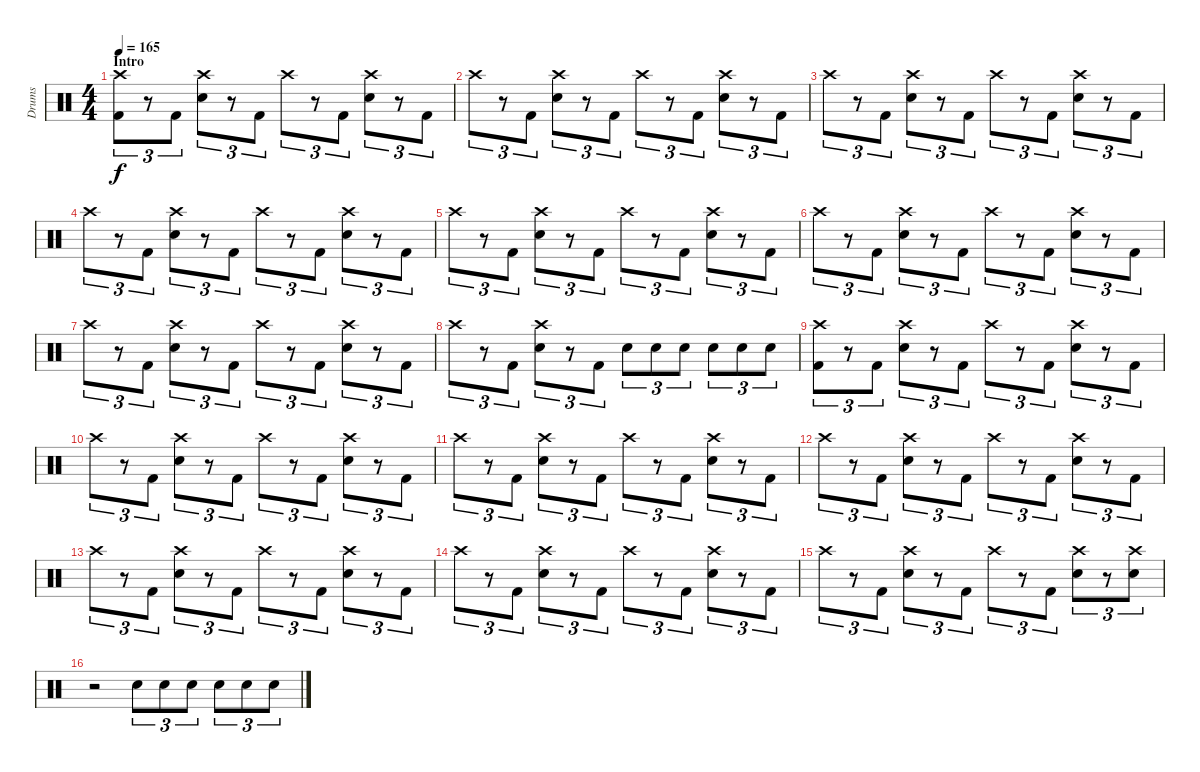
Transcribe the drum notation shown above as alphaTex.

\track ("Drums" "Drums") {instrument percussion}
\staff {score}
\articulation defaults
\ts (4 4)
\section ("" "Intro")
\tempo 165
\clef neutral
\ks c
("Crash high (hit)" "Kick (hit) 2").8{tu (3 2) dy f} r.8{tu (3 2)} "Kick (hit) 2".8{tu (3 2)} ("Crash high (hit)" "Snare (hit) 2").8{tu (3 2)} r.8{tu (3 2)} "Kick (hit) 2".8{tu (3 2)} "Crash high (hit)".8{tu (3 2)} r.8{tu (3 2)} "Kick (hit) 2".8{tu (3 2)} ("Crash high (hit)" "Snare (hit) 2").8{tu (3 2)} r.8{tu (3 2)} "Kick (hit) 2".8{tu (3 2)} |
"Crash high (hit)".8{tu (3 2)} r.8{tu (3 2)} "Kick (hit) 2".8{tu (3 2)} ("Crash high (hit)" "Snare (hit) 2").8{tu (3 2)} r.8{tu (3 2)} "Kick (hit) 2".8{tu (3 2)} "Crash high (hit)".8{tu (3 2)} r.8{tu (3 2)} "Kick (hit) 2".8{tu (3 2)} ("Crash high (hit)" "Snare (hit) 2").8{tu (3 2)} r.8{tu (3 2)} "Kick (hit) 2".8{tu (3 2)} |
"Crash high (hit)".8{tu (3 2)} r.8{tu (3 2)} "Kick (hit) 2".8{tu (3 2)} ("Crash high (hit)" "Snare (hit) 2").8{tu (3 2)} r.8{tu (3 2)} "Kick (hit) 2".8{tu (3 2)} "Crash high (hit)".8{tu (3 2)} r.8{tu (3 2)} "Kick (hit) 2".8{tu (3 2)} ("Crash high (hit)" "Snare (hit) 2").8{tu (3 2)} r.8{tu (3 2)} "Kick (hit) 2".8{tu (3 2)} |
"Crash high (hit)".8{tu (3 2)} r.8{tu (3 2)} "Kick (hit) 2".8{tu (3 2)} ("Crash high (hit)" "Snare (hit) 2").8{tu (3 2)} r.8{tu (3 2)} "Kick (hit) 2".8{tu (3 2)} "Crash high (hit)".8{tu (3 2)} r.8{tu (3 2)} "Kick (hit) 2".8{tu (3 2)} ("Crash high (hit)" "Snare (hit) 2").8{tu (3 2)} r.8{tu (3 2)} "Kick (hit) 2".8{tu (3 2)} |
"Crash high (hit)".8{tu (3 2)} r.8{tu (3 2)} "Kick (hit) 2".8{tu (3 2)} ("Crash high (hit)" "Snare (hit) 2").8{tu (3 2)} r.8{tu (3 2)} "Kick (hit) 2".8{tu (3 2)} "Crash high (hit)".8{tu (3 2)} r.8{tu (3 2)} "Kick (hit) 2".8{tu (3 2)} ("Crash high (hit)" "Snare (hit) 2").8{tu (3 2)} r.8{tu (3 2)} "Kick (hit) 2".8{tu (3 2)} |
"Crash high (hit)".8{tu (3 2)} r.8{tu (3 2)} "Kick (hit) 2".8{tu (3 2)} ("Crash high (hit)" "Snare (hit) 2").8{tu (3 2)} r.8{tu (3 2)} "Kick (hit) 2".8{tu (3 2)} "Crash high (hit)".8{tu (3 2)} r.8{tu (3 2)} "Kick (hit) 2".8{tu (3 2)} ("Crash high (hit)" "Snare (hit) 2").8{tu (3 2)} r.8{tu (3 2)} "Kick (hit) 2".8{tu (3 2)} |
"Crash high (hit)".8{tu (3 2)} r.8{tu (3 2)} "Kick (hit) 2".8{tu (3 2)} ("Crash high (hit)" "Snare (hit) 2").8{tu (3 2)} r.8{tu (3 2)} "Kick (hit) 2".8{tu (3 2)} "Crash high (hit)".8{tu (3 2)} r.8{tu (3 2)} "Kick (hit) 2".8{tu (3 2)} ("Crash high (hit)" "Snare (hit) 2").8{tu (3 2)} r.8{tu (3 2)} "Kick (hit) 2".8{tu (3 2)} |
"Crash high (hit)".8{tu (3 2)} r.8{tu (3 2)} "Kick (hit) 2".8{tu (3 2)} ("Crash high (hit)" "Snare (hit) 2").8{tu (3 2)} r.8{tu (3 2)} "Kick (hit) 2".8{tu (3 2)} "Snare (hit) 2".8{tu (3 2)} "Snare (hit) 2".8{tu (3 2)} "Snare (hit) 2".8{tu (3 2)} "Snare (hit) 2".8{tu (3 2)} "Snare (hit) 2".8{tu (3 2)} "Snare (hit) 2".8{tu (3 2)} |
("Crash high (hit)" "Kick (hit) 2").8{tu (3 2)} r.8{tu (3 2)} "Kick (hit) 2".8{tu (3 2)} ("Crash high (hit)" "Snare (hit) 2").8{tu (3 2)} r.8{tu (3 2)} "Kick (hit) 2".8{tu (3 2)} "Crash high (hit)".8{tu (3 2)} r.8{tu (3 2)} "Kick (hit) 2".8{tu (3 2)} ("Crash high (hit)" "Snare (hit) 2").8{tu (3 2)} r.8{tu (3 2)} "Kick (hit) 2".8{tu (3 2)} |
"Crash high (hit)".8{tu (3 2)} r.8{tu (3 2)} "Kick (hit) 2".8{tu (3 2)} ("Crash high (hit)" "Snare (hit) 2").8{tu (3 2)} r.8{tu (3 2)} "Kick (hit) 2".8{tu (3 2)} "Crash high (hit)".8{tu (3 2)} r.8{tu (3 2)} "Kick (hit) 2".8{tu (3 2)} ("Crash high (hit)" "Snare (hit) 2").8{tu (3 2)} r.8{tu (3 2)} "Kick (hit) 2".8{tu (3 2)} |
"Crash high (hit)".8{tu (3 2)} r.8{tu (3 2)} "Kick (hit) 2".8{tu (3 2)} ("Crash high (hit)" "Snare (hit) 2").8{tu (3 2)} r.8{tu (3 2)} "Kick (hit) 2".8{tu (3 2)} "Crash high (hit)".8{tu (3 2)} r.8{tu (3 2)} "Kick (hit) 2".8{tu (3 2)} ("Crash high (hit)" "Snare (hit) 2").8{tu (3 2)} r.8{tu (3 2)} "Kick (hit) 2".8{tu (3 2)} |
"Crash high (hit)".8{tu (3 2)} r.8{tu (3 2)} "Kick (hit) 2".8{tu (3 2)} ("Crash high (hit)" "Snare (hit) 2").8{tu (3 2)} r.8{tu (3 2)} "Kick (hit) 2".8{tu (3 2)} "Crash high (hit)".8{tu (3 2)} r.8{tu (3 2)} "Kick (hit) 2".8{tu (3 2)} ("Crash high (hit)" "Snare (hit) 2").8{tu (3 2)} r.8{tu (3 2)} "Kick (hit) 2".8{tu (3 2)} |
"Crash high (hit)".8{tu (3 2)} r.8{tu (3 2)} "Kick (hit) 2".8{tu (3 2)} ("Crash high (hit)" "Snare (hit) 2").8{tu (3 2)} r.8{tu (3 2)} "Kick (hit) 2".8{tu (3 2)} "Crash high (hit)".8{tu (3 2)} r.8{tu (3 2)} "Kick (hit) 2".8{tu (3 2)} ("Crash high (hit)" "Snare (hit) 2").8{tu (3 2)} r.8{tu (3 2)} "Kick (hit) 2".8{tu (3 2)} |
"Crash high (hit)".8{tu (3 2)} r.8{tu (3 2)} "Kick (hit) 2".8{tu (3 2)} ("Crash high (hit)" "Snare (hit) 2").8{tu (3 2)} r.8{tu (3 2)} "Kick (hit) 2".8{tu (3 2)} "Crash high (hit)".8{tu (3 2)} r.8{tu (3 2)} "Kick (hit) 2".8{tu (3 2)} ("Crash high (hit)" "Snare (hit) 2").8{tu (3 2)} r.8{tu (3 2)} "Kick (hit) 2".8{tu (3 2)} |
"Crash high (hit)".8{tu (3 2)} r.8{tu (3 2)} "Kick (hit) 2".8{tu (3 2)} ("Crash high (hit)" "Snare (hit) 2").8{tu (3 2)} r.8{tu (3 2)} "Kick (hit) 2".8{tu (3 2)} "Crash high (hit)".8{tu (3 2)} r.8{tu (3 2)} "Kick (hit) 2".8{tu (3 2)} ("Crash high (hit)" "Snare (hit) 2").8{tu (3 2)} r.8{tu (3 2)} ("Crash high (hit)" "Snare (hit) 2").8{tu (3 2)} |
r.2 "Snare (hit) 2".8{tu (3 2)} "Snare (hit) 2".8{tu (3 2)} "Snare (hit) 2".8{tu (3 2)} "Snare (hit) 2".8{tu (3 2)} "Snare (hit) 2".8{tu (3 2)} "Snare (hit) 2".8{tu (3 2)}
